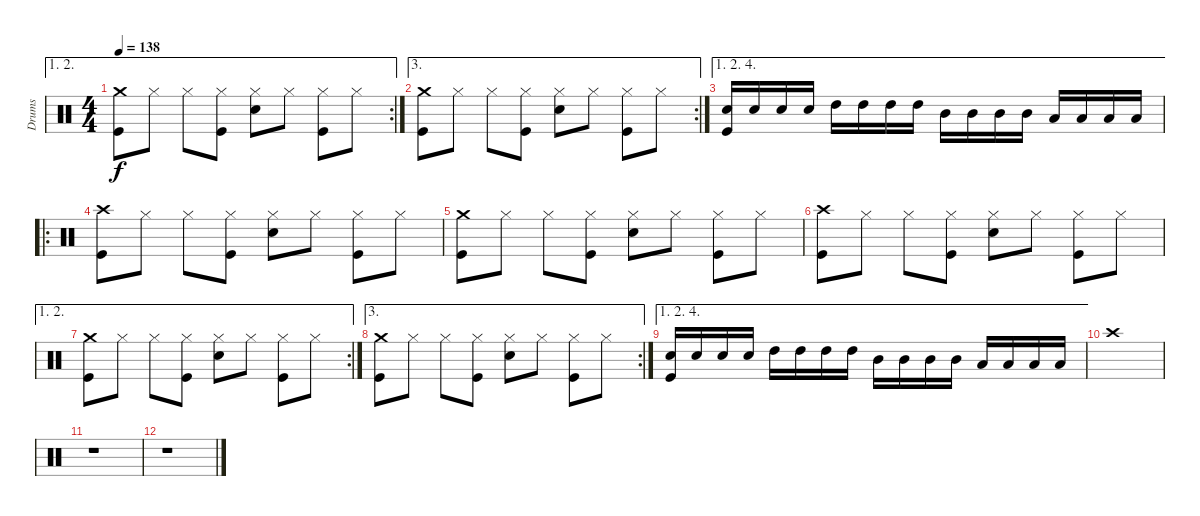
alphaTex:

\track ("Drums" "Drums") {instrument percussion}
\staff {score}
\articulation defaults
\ae (1 2)
\rc 2
\ts (4 4)
\tempo 138
\clef neutral
\ks c
("Crash medium (hit)" "Kick (hit)").8{dy f} "Hi-Hat (closed)".8 "Hi-Hat (closed)".8 ("Hi-Hat (closed)" "Kick (hit)").8 ("Hi-Hat (closed)" "Snare (hit) 2").8 "Hi-Hat (closed)".8 ("Hi-Hat (closed)" "Kick (hit)").8 "Hi-Hat (closed)".8 |
\ae 3
\rc 2
("Crash medium (hit)" "Kick (hit)").8 "Hi-Hat (closed)".8 "Hi-Hat (closed)".8 ("Hi-Hat (closed)" "Kick (hit)").8 ("Hi-Hat (closed)" "Snare (hit) 2").8 "Hi-Hat (closed)".8 ("Hi-Hat (closed)" "Kick (hit)").8 "Hi-Hat (closed)".8 |
\ae (1 2 4)
("Snare (hit) 2" "Kick (hit)").16 "Snare (hit) 2".16 "Snare (hit) 2".16 "Snare (hit) 2".16 "High Tom (hit)".16 "High Tom (hit)".16 "High Tom (hit)".16 "High Tom (hit)".16 "Mid Tom (hit)".16 "Mid Tom (hit)".16 "Mid Tom (hit)".16 "Mid Tom (hit)".16 "Low Tom (hit)".16 "Low Tom (hit)".16 "Low Tom (hit)".16 "Low Tom (hit)".16 |
\ro
("Crash high (hit)" "Kick (hit)").8 "Hi-Hat (closed)".8 "Hi-Hat (closed)".8 ("Hi-Hat (closed)" "Kick (hit)").8 ("Hi-Hat (closed)" "Snare (hit) 2").8 "Hi-Hat (closed)".8 ("Hi-Hat (closed)" "Kick (hit)").8 "Hi-Hat (closed)".8 |
("Crash medium (hit)" "Kick (hit)").8 "Hi-Hat (closed)".8 "Hi-Hat (closed)".8 ("Hi-Hat (closed)" "Kick (hit)").8 ("Hi-Hat (closed)" "Snare (hit) 2").8 "Hi-Hat (closed)".8 ("Hi-Hat (closed)" "Kick (hit)").8 "Hi-Hat (closed)".8 |
("Crash high (hit)" "Kick (hit)").8 "Hi-Hat (closed)".8 "Hi-Hat (closed)".8 ("Hi-Hat (closed)" "Kick (hit)").8 ("Hi-Hat (closed)" "Snare (hit) 2").8 "Hi-Hat (closed)".8 ("Hi-Hat (closed)" "Kick (hit)").8 "Hi-Hat (closed)".8 |
\ae (1 2)
\rc 2
("Crash medium (hit)" "Kick (hit)").8 "Hi-Hat (closed)".8 "Hi-Hat (closed)".8 ("Hi-Hat (closed)" "Kick (hit)").8 ("Hi-Hat (closed)" "Snare (hit) 2").8 "Hi-Hat (closed)".8 ("Hi-Hat (closed)" "Kick (hit)").8 "Hi-Hat (closed)".8 |
\ae 3
\rc 2
("Crash medium (hit)" "Kick (hit)").8 "Hi-Hat (closed)".8 "Hi-Hat (closed)".8 ("Hi-Hat (closed)" "Kick (hit)").8 ("Hi-Hat (closed)" "Snare (hit) 2").8 "Hi-Hat (closed)".8 ("Hi-Hat (closed)" "Kick (hit)").8 "Hi-Hat (closed)".8 |
\ae (1 2 4)
("Snare (hit) 2" "Kick (hit)").16 "Snare (hit) 2".16 "Snare (hit) 2".16 "Snare (hit) 2".16 "High Tom (hit)".16 "High Tom (hit)".16 "High Tom (hit)".16 "High Tom (hit)".16 "Mid Tom (hit)".16 "Mid Tom (hit)".16 "Mid Tom (hit)".16 "Mid Tom (hit)".16 "Low Tom (hit)".16 "Low Tom (hit)".16 "Low Tom (hit)".16 "Low Tom (hit)".16 |
"Crash high (hit)".1 |
r.1 |
r.1
